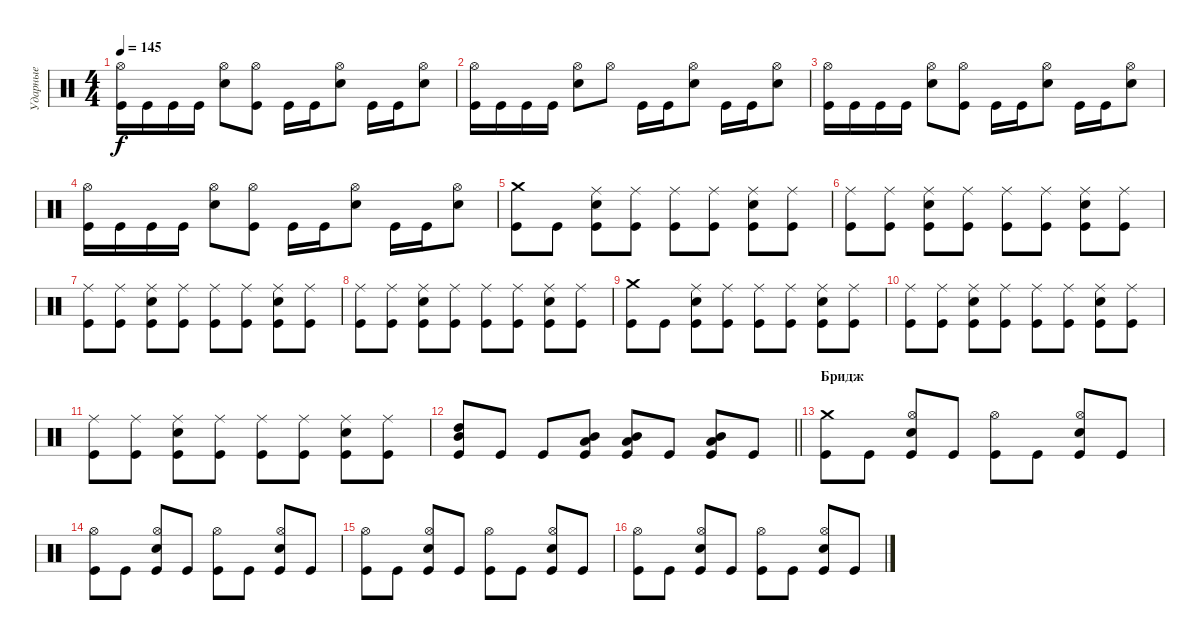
\track ("Ударные" "Ударные") {instrument percussion}
\staff {score}
\articulation defaults
\ts (4 4)
\tempo 145
\clef neutral
\ks c
("Kick (hit)" "Hi-Hat (open)").16{dy f} "Kick (hit)".16 "Kick (hit)".16 "Kick (hit)".16 ("Snare (hit) 2" "Hi-Hat (open)").8 ("Kick (hit)" "Hi-Hat (open)").8 "Kick (hit)".16 "Kick (hit)".16 ("Snare (hit) 2" "Hi-Hat (open)").8 "Kick (hit)".16 "Kick (hit)".16 ("Snare (hit) 2" "Hi-Hat (open)").8 |
("Kick (hit)" "Hi-Hat (open)").16 "Kick (hit)".16 "Kick (hit)".16 "Kick (hit)".16 ("Snare (hit) 2" "Hi-Hat (open)").8 "Hi-Hat (open)".8 "Kick (hit)".16 "Kick (hit)".16 ("Snare (hit) 2" "Hi-Hat (open)").8 "Kick (hit)".16 "Kick (hit)".16 ("Snare (hit) 2" "Hi-Hat (open)").8 |
("Kick (hit)" "Hi-Hat (open)").16 "Kick (hit)".16 "Kick (hit)".16 "Kick (hit)".16 ("Snare (hit) 2" "Hi-Hat (open)").8 ("Kick (hit)" "Hi-Hat (open)").8 "Kick (hit)".16 "Kick (hit)".16 ("Snare (hit) 2" "Hi-Hat (open)").8 "Kick (hit)".16 "Kick (hit)".16 ("Snare (hit) 2" "Hi-Hat (open)").8 |
("Kick (hit)" "Hi-Hat (open)").16 "Kick (hit)".16 "Kick (hit)".16 "Kick (hit)".16 ("Snare (hit) 2" "Hi-Hat (open)").8 ("Kick (hit)" "Hi-Hat (open)").8 "Kick (hit)".16 "Kick (hit)".16 ("Snare (hit) 2" "Hi-Hat (open)").8 "Kick (hit)".16 "Kick (hit)".16 ("Snare (hit) 2" "Hi-Hat (open)").8 |
("Kick (hit)" "Crash medium (hit)").8 "Kick (hit)".8 ("Kick (hit)" "Snare (hit) 2" "Ride (middle)").8 ("Kick (hit)" "Ride (middle)").8 ("Kick (hit)" "Ride (middle)").8 ("Kick (hit)" "Ride (middle)").8 ("Kick (hit)" "Snare (hit) 2" "Ride (middle)").8 ("Kick (hit)" "Ride (middle)").8 |
("Kick (hit)" "Ride (middle)").8 ("Kick (hit)" "Ride (middle)").8 ("Kick (hit)" "Snare (hit) 2" "Ride (middle)").8 ("Kick (hit)" "Ride (middle)").8 ("Kick (hit)" "Ride (middle)").8 ("Kick (hit)" "Ride (middle)").8 ("Kick (hit)" "Snare (hit) 2" "Ride (middle)").8 ("Kick (hit)" "Ride (middle)").8 |
("Kick (hit)" "Ride (middle)").8 ("Kick (hit)" "Ride (middle)").8 ("Kick (hit)" "Snare (hit) 2" "Ride (middle)").8 ("Kick (hit)" "Ride (middle)").8 ("Kick (hit)" "Ride (middle)").8 ("Kick (hit)" "Ride (middle)").8 ("Kick (hit)" "Snare (hit) 2" "Ride (middle)").8 ("Kick (hit)" "Ride (middle)").8 |
("Kick (hit)" "Ride (middle)").8 ("Kick (hit)" "Ride (middle)").8 ("Kick (hit)" "Snare (hit) 2" "Ride (middle)").8 ("Kick (hit)" "Ride (middle)").8 ("Kick (hit)" "Ride (middle)").8 ("Kick (hit)" "Ride (middle)").8 ("Kick (hit)" "Snare (hit) 2" "Ride (middle)").8 ("Kick (hit)" "Ride (middle)").8 |
("Kick (hit)" "Crash medium (hit)").8 "Kick (hit)".8 ("Kick (hit)" "Snare (hit) 2" "Ride (middle)").8 ("Kick (hit)" "Ride (middle)").8 ("Kick (hit)" "Ride (middle)").8 ("Kick (hit)" "Ride (middle)").8 ("Kick (hit)" "Snare (hit) 2" "Ride (middle)").8 ("Kick (hit)" "Ride (middle)").8 |
("Kick (hit)" "Ride (middle)").8 ("Kick (hit)" "Ride (middle)").8 ("Kick (hit)" "Snare (hit) 2" "Ride (middle)").8 ("Kick (hit)" "Ride (middle)").8 ("Kick (hit)" "Ride (middle)").8 ("Kick (hit)" "Ride (middle)").8 ("Kick (hit)" "Snare (hit) 2" "Ride (middle)").8 ("Kick (hit)" "Ride (middle)").8 |
("Kick (hit)" "Ride (middle)").8 ("Kick (hit)" "Ride (middle)").8 ("Kick (hit)" "Snare (hit) 2" "Ride (middle)").8 ("Kick (hit)" "Ride (middle)").8 ("Kick (hit)" "Ride (middle)").8 ("Kick (hit)" "Ride (middle)").8 ("Kick (hit)" "Snare (hit) 2" "Ride (middle)").8 ("Kick (hit)" "Ride (middle)").8 |
\barLineRight lightlight
("Kick (hit)" "Mid Tom (hit)" "High Tom (hit)").8{bd 60} "Kick (hit)".8 "Kick (hit)".8 ("Kick (hit)" "Low Tom (hit)" "Mid Tom (hit)").8{bd 60} ("Kick (hit)" "Low Tom (hit)" "Mid Tom (hit)").8{bd 60} "Kick (hit)".8 ("Kick (hit)" "Low Tom (hit)" "Mid Tom (hit)").8{bd 60} "Kick (hit)".8 |
\section ("" "Бридж")
("Kick (hit)" "Crash medium (hit)").8 "Kick (hit)".8 ("Kick (hit)" "Snare (hit) 2" "Hi-Hat (open)").8 "Kick (hit)".8 ("Kick (hit)" "Hi-Hat (open)").8 "Kick (hit)".8 ("Kick (hit)" "Snare (hit) 2" "Hi-Hat (open)").8 "Kick (hit)".8 |
("Kick (hit)" "Hi-Hat (open)").8 "Kick (hit)".8 ("Kick (hit)" "Snare (hit) 2" "Hi-Hat (open)").8 "Kick (hit)".8 ("Kick (hit)" "Hi-Hat (open)").8 "Kick (hit)".8 ("Kick (hit)" "Snare (hit) 2" "Hi-Hat (open)").8 "Kick (hit)".8 |
("Kick (hit)" "Hi-Hat (open)").8 "Kick (hit)".8 ("Kick (hit)" "Snare (hit) 2" "Hi-Hat (open)").8 "Kick (hit)".8 ("Kick (hit)" "Hi-Hat (open)").8 "Kick (hit)".8 ("Kick (hit)" "Snare (hit) 2" "Hi-Hat (open)").8 "Kick (hit)".8 |
("Kick (hit)" "Hi-Hat (open)").8 "Kick (hit)".8 ("Kick (hit)" "Snare (hit) 2" "Hi-Hat (open)").8 "Kick (hit)".8 ("Kick (hit)" "Hi-Hat (open)").8 "Kick (hit)".8 ("Kick (hit)" "Snare (hit) 2" "Hi-Hat (open)").8 "Kick (hit)".8
